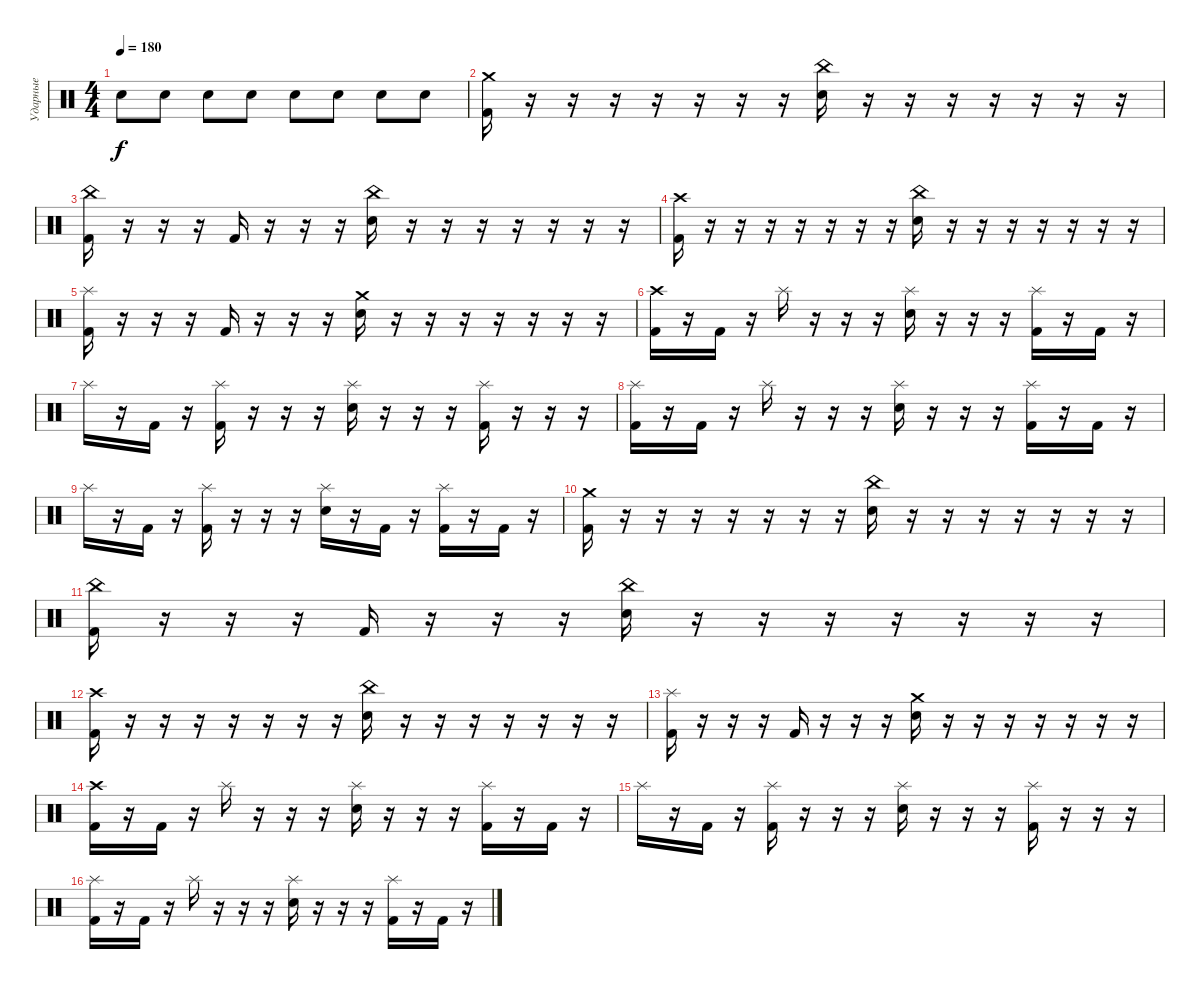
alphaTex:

\track ("Ударные" "Ударные") {instrument percussion}
\staff {score}
\articulation defaults
\ts (4 4)
\tempo 180
\clef neutral
\ks c "Electric Snare (hit)".8{dy f} "Electric Snare (hit)".8 "Electric Snare (hit)".8 "Electric Snare (hit)".8 "Electric Snare (hit)".8 "Electric Snare (hit)".8 "Electric Snare (hit)".8 "Electric Snare (hit)".8
|
("Kick (hit) 2" "Crash medium (hit)").16 r.16 r.16 r.16 r.16 r.16 r.16 r.16 ("Electric Snare (hit)" "China (hit)").16 r.16 r.16 r.16 r.16 r.16 r.16 r.16 |
("Kick (hit) 2" "China (hit)").16 r.16 r.16 r.16 "Kick (hit) 2".16 r.16 r.16 r.16 ("Electric Snare (hit)" "China (hit)").16 r.16 r.16 r.16 r.16 r.16 r.16 r.16 |
("Kick (hit) 2" "Crash high (hit)").16 r.16 r.16 r.16 r.16 r.16 r.16 r.16 ("Electric Snare (hit)" "China (hit)").16 r.16 r.16 r.16 r.16 r.16 r.16 r.16 |
("Kick (hit) 2" "Splash (hit)").16 r.16 r.16 r.16 "Kick (hit) 2".16 r.16 r.16 r.16 ("Electric Snare (hit)" "Crash medium (hit)").16 r.16 r.16 r.16 r.16 r.16 r.16 r.16 |
("Kick (hit) 2" "Crash high (hit)").16 r.16 "Kick (hit) 2".16 r.16 "Splash (hit)".16 r.16 r.16 r.16 ("Electric Snare (hit)" "Splash (hit)").16 r.16 r.16 r.16 ("Kick (hit) 2" "Splash (hit)").16 r.16 "Kick (hit) 2".16 r.16 |
"Splash (hit)".16 r.16 "Kick (hit) 2".16 r.16 ("Kick (hit) 2" "Splash (hit)").16 r.16 r.16 r.16 ("Electric Snare (hit)" "Splash (hit)").16 r.16 r.16 r.16 ("Kick (hit) 2" "Splash (hit)").16 r.16 r.16 r.16 |
("Kick (hit) 2" "Splash (hit)").16 r.16 "Kick (hit) 2".16 r.16 "Splash (hit)".16 r.16 r.16 r.16 ("Electric Snare (hit)" "Splash (hit)").16 r.16 r.16 r.16 ("Kick (hit) 2" "Splash (hit)").16 r.16 "Kick (hit) 2".16 r.16 |
"Splash (hit)".16 r.16 "Kick (hit) 2".16 r.16 ("Kick (hit) 2" "Splash (hit)").16 r.16 r.16 r.16 ("Electric Snare (hit)" "Splash (hit)").16 r.16 "Kick (hit) 2".16 r.16 ("Kick (hit) 2" "Splash (hit)").16 r.16 "Kick (hit) 2".16 r.16 |
("Kick (hit) 2" "Crash medium (hit)").16 r.16 r.16 r.16 r.16 r.16 r.16 r.16 ("Electric Snare (hit)" "China (hit)").16 r.16 r.16 r.16 r.16 r.16 r.16 r.16 |
("Kick (hit) 2" "China (hit)").16 r.16 r.16 r.16 "Kick (hit) 2".16 r.16 r.16 r.16 ("Electric Snare (hit)" "China (hit)").16 r.16 r.16 r.16 r.16 r.16 r.16 r.16 |
("Kick (hit) 2" "Crash high (hit)").16 r.16 r.16 r.16 r.16 r.16 r.16 r.16 ("Electric Snare (hit)" "China (hit)").16 r.16 r.16 r.16 r.16 r.16 r.16 r.16 |
("Kick (hit) 2" "Splash (hit)").16 r.16 r.16 r.16 "Kick (hit) 2".16 r.16 r.16 r.16 ("Electric Snare (hit)" "Crash medium (hit)").16 r.16 r.16 r.16 r.16 r.16 r.16 r.16 |
("Kick (hit) 2" "Crash high (hit)").16 r.16 "Kick (hit) 2".16 r.16 "Splash (hit)".16 r.16 r.16 r.16 ("Electric Snare (hit)" "Splash (hit)").16 r.16 r.16 r.16 ("Kick (hit) 2" "Splash (hit)").16 r.16 "Kick (hit) 2".16 r.16 |
"Splash (hit)".16 r.16 "Kick (hit) 2".16 r.16 ("Kick (hit) 2" "Splash (hit)").16 r.16 r.16 r.16 ("Electric Snare (hit)" "Splash (hit)").16 r.16 r.16 r.16 ("Kick (hit) 2" "Splash (hit)").16 r.16 r.16 r.16 |
("Kick (hit) 2" "Splash (hit)").16 r.16 "Kick (hit) 2".16 r.16 "Splash (hit)".16 r.16 r.16 r.16 ("Electric Snare (hit)" "Splash (hit)").16 r.16 r.16 r.16 ("Kick (hit) 2" "Splash (hit)").16 r.16 "Kick (hit) 2".16 r.16
